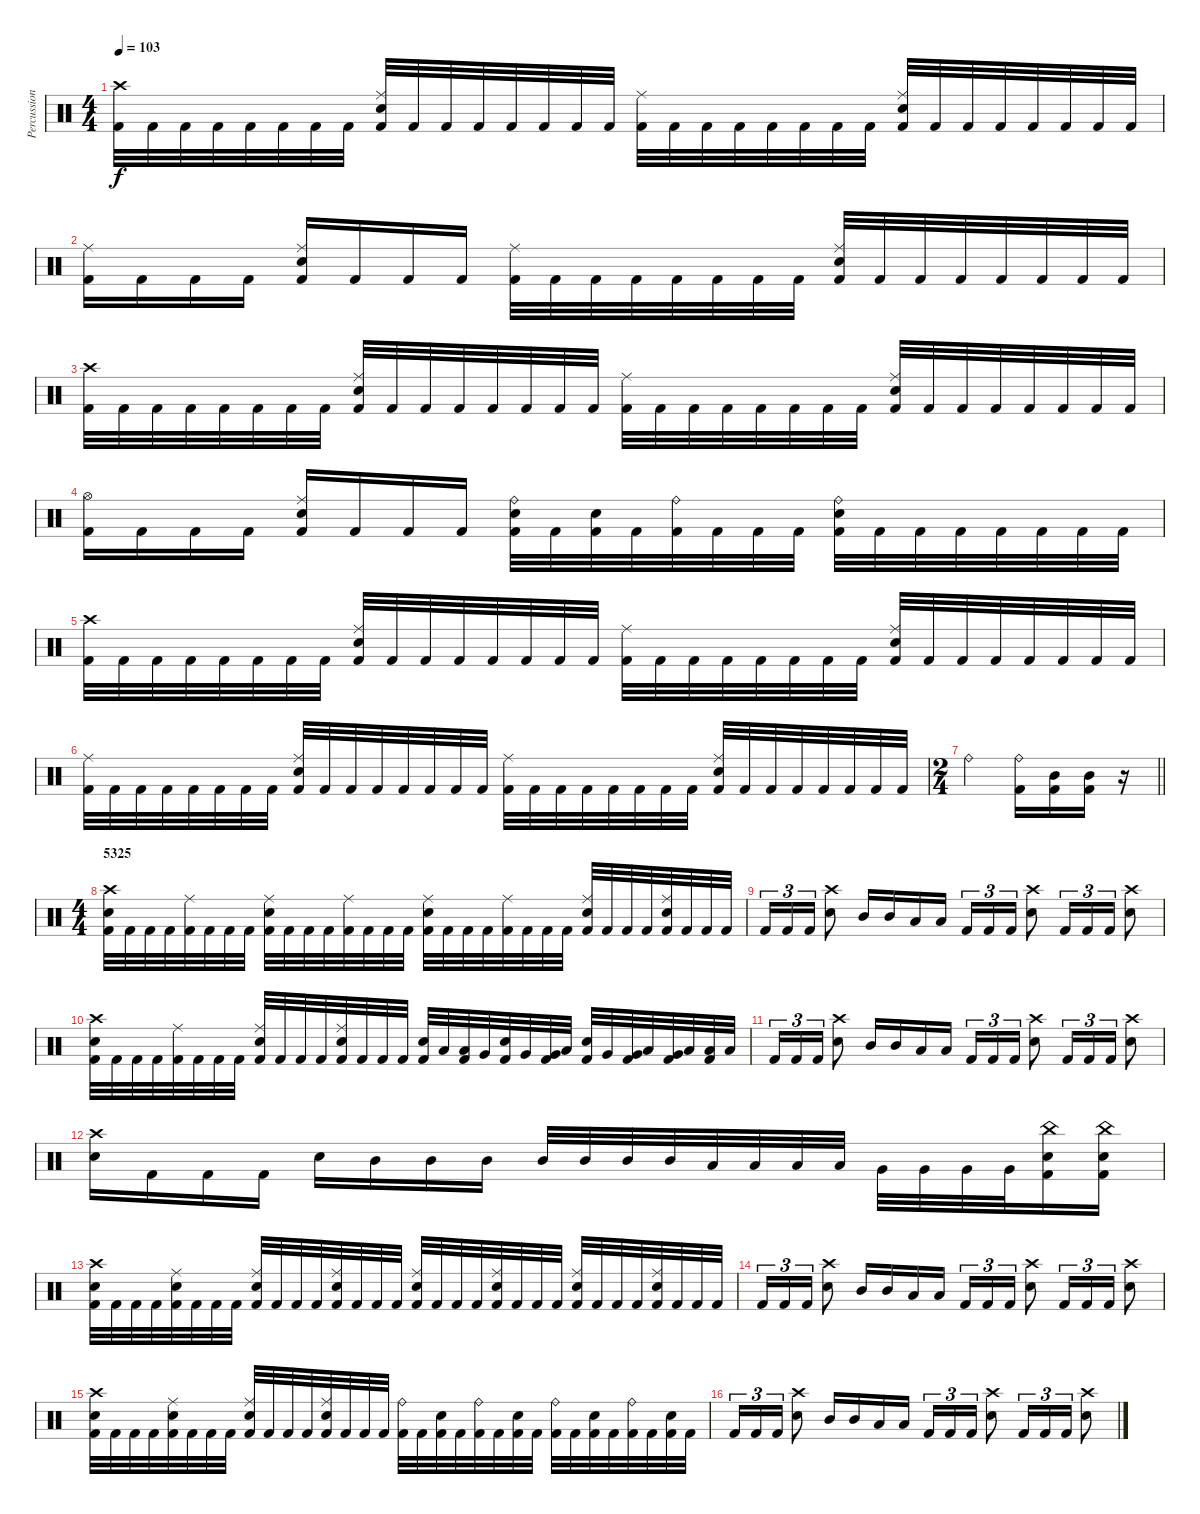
\track ("Percussion" "Percussion") {instrument percussion}
\staff {score}
\articulation defaults
\ts (4 4)
\tempo 103
\clef neutral
\ks c
("Crash high (hit)" "Kick (hit) 2").32{dy f} "Kick (hit) 2".32 "Kick (hit) 2".32 "Kick (hit) 2".32 "Kick (hit) 2".32 "Kick (hit) 2".32 "Kick (hit) 2".32 "Kick (hit) 2".32 ("Ride (middle)" "Electric Snare (hit)" "Kick (hit) 2").32 "Kick (hit) 2".32 "Kick (hit) 2".32 "Kick (hit) 2".32 "Kick (hit) 2".32 "Kick (hit) 2".32 "Kick (hit) 2".32 "Kick (hit) 2".32 ("Ride (middle)" "Kick (hit) 2").32 "Kick (hit) 2".32 "Kick (hit) 2".32 "Kick (hit) 2".32 "Kick (hit) 2".32 "Kick (hit) 2".32 "Kick (hit) 2".32 "Kick (hit) 2".32 ("Ride (middle)" "Electric Snare (hit)" "Kick (hit) 2").32 "Kick (hit) 2".32 "Kick (hit) 2".32 "Kick (hit) 2".32 "Kick (hit) 2".32 "Kick (hit) 2".32 "Kick (hit) 2".32 "Kick (hit) 2".32 |
("Ride (middle)" "Kick (hit) 2").16 "Kick (hit) 2".16 "Kick (hit) 2".16 "Kick (hit) 2".16 ("Ride (middle)" "Electric Snare (hit)" "Kick (hit) 2").16 "Kick (hit) 2".16 "Kick (hit) 2".16 "Kick (hit) 2".16 ("Ride (middle)" "Kick (hit) 2").32 "Kick (hit) 2".32 "Kick (hit) 2".32 "Kick (hit) 2".32 "Kick (hit) 2".32 "Kick (hit) 2".32 "Kick (hit) 2".32 "Kick (hit) 2".32 ("Ride (middle)" "Electric Snare (hit)" "Kick (hit) 2").32 "Kick (hit) 2".32 "Kick (hit) 2".32 "Kick (hit) 2".32 "Kick (hit) 2".32 "Kick (hit) 2".32 "Kick (hit) 2".32 "Kick (hit) 2".32 |
("Crash high (hit)" "Kick (hit) 2").32 "Kick (hit) 2".32 "Kick (hit) 2".32 "Kick (hit) 2".32 "Kick (hit) 2".32 "Kick (hit) 2".32 "Kick (hit) 2".32 "Kick (hit) 2".32 ("Ride (middle)" "Electric Snare (hit)" "Kick (hit) 2").32 "Kick (hit) 2".32 "Kick (hit) 2".32 "Kick (hit) 2".32 "Kick (hit) 2".32 "Kick (hit) 2".32 "Kick (hit) 2".32 "Kick (hit) 2".32 ("Ride (middle)" "Kick (hit) 2").32 "Kick (hit) 2".32 "Kick (hit) 2".32 "Kick (hit) 2".32 "Kick (hit) 2".32 "Kick (hit) 2".32 "Kick (hit) 2".32 "Kick (hit) 2".32 ("Ride (middle)" "Electric Snare (hit)" "Kick (hit) 2").32 "Kick (hit) 2".32 "Kick (hit) 2".32 "Kick (hit) 2".32 "Kick (hit) 2".32 "Kick (hit) 2".32 "Kick (hit) 2".32 "Kick (hit) 2".32 |
("Hi-Hat (open)" "Kick (hit) 2").16 "Kick (hit) 2".16 "Kick (hit) 2".16 "Kick (hit) 2".16 ("Ride (middle)" "Electric Snare (hit)" "Kick (hit) 2").16 "Kick (hit) 2".16 "Kick (hit) 2".16 "Kick (hit) 2".16 ("Ride (bell)" "Electric Snare (hit)" "Kick (hit) 2").32 "Kick (hit) 2".32 ("Electric Snare (hit)" "Kick (hit) 2").32 "Kick (hit) 2".32 ("Ride (bell)" "Kick (hit) 2").32 "Kick (hit) 2".32 "Kick (hit) 2".32 "Kick (hit) 2".32 ("Ride (bell)" "Electric Snare (hit)" "Kick (hit) 2").32 "Kick (hit) 2".32 "Kick (hit) 2".32 "Kick (hit) 2".32 "Kick (hit) 2".32 "Kick (hit) 2".32 "Kick (hit) 2".32 "Kick (hit) 2".32 |
("Crash high (hit)" "Kick (hit) 2").32 "Kick (hit) 2".32 "Kick (hit) 2".32 "Kick (hit) 2".32 "Kick (hit) 2".32 "Kick (hit) 2".32 "Kick (hit) 2".32 "Kick (hit) 2".32 ("Ride (middle)" "Electric Snare (hit)" "Kick (hit) 2").32 "Kick (hit) 2".32 "Kick (hit) 2".32 "Kick (hit) 2".32 "Kick (hit) 2".32 "Kick (hit) 2".32 "Kick (hit) 2".32 "Kick (hit) 2".32 ("Ride (middle)" "Kick (hit) 2").32 "Kick (hit) 2".32 "Kick (hit) 2".32 "Kick (hit) 2".32 "Kick (hit) 2".32 "Kick (hit) 2".32 "Kick (hit) 2".32 "Kick (hit) 2".32 ("Ride (middle)" "Electric Snare (hit)" "Kick (hit) 2").32 "Kick (hit) 2".32 "Kick (hit) 2".32 "Kick (hit) 2".32 "Kick (hit) 2".32 "Kick (hit) 2".32 "Kick (hit) 2".32 "Kick (hit) 2".32 |
("Ride (middle)" "Kick (hit) 2").32 "Kick (hit) 2".32 "Kick (hit) 2".32 "Kick (hit) 2".32 "Kick (hit) 2".32 "Kick (hit) 2".32 "Kick (hit) 2".32 "Kick (hit) 2".32 ("Ride (middle)" "Electric Snare (hit)" "Kick (hit) 2").32 "Kick (hit) 2".32 "Kick (hit) 2".32 "Kick (hit) 2".32 "Kick (hit) 2".32 "Kick (hit) 2".32 "Kick (hit) 2".32 "Kick (hit) 2".32 ("Ride (middle)" "Kick (hit) 2").32 "Kick (hit) 2".32 "Kick (hit) 2".32 "Kick (hit) 2".32 "Kick (hit) 2".32 "Kick (hit) 2".32 "Kick (hit) 2".32 "Kick (hit) 2".32 ("Ride (middle)" "Electric Snare (hit)" "Kick (hit) 2").32 "Kick (hit) 2".32 "Kick (hit) 2".32 "Kick (hit) 2".32 "Kick (hit) 2".32 "Kick (hit) 2".32 "Kick (hit) 2".32 "Kick (hit) 2".32 |
\ts (2 4)
\barLineRight lightlight "Ride (bell)".4
("Ride (bell)" "Kick (hit) 2").16 ("Mid Tom (hit)" "Kick (hit) 2").16 ("Mid Tom (hit)" "Kick (hit) 2").16 r.16 |
\ts (4 4)
\section ("" "5325")
("Crash high (hit)" "Electric Snare (hit)" "Kick (hit) 2").32 "Kick (hit) 2".32 "Kick (hit) 2".32 "Kick (hit) 2".32 ("Ride (middle)" "Kick (hit) 2").32 "Kick (hit) 2".32 "Kick (hit) 2".32 "Kick (hit) 2".32 ("Ride (middle)" "Electric Snare (hit)" "Kick (hit) 2").32 "Kick (hit) 2".32 "Kick (hit) 2".32 "Kick (hit) 2".32 ("Ride (middle)" "Kick (hit) 2").32 "Kick (hit) 2".32 "Kick (hit) 2".32 "Kick (hit) 2".32 ("Ride (middle)" "Electric Snare (hit)" "Kick (hit) 2").32 "Kick (hit) 2".32 "Kick (hit) 2".32 "Kick (hit) 2".32 ("Ride (middle)" "Kick (hit) 2").32 "Kick (hit) 2".32 "Kick (hit) 2".32 "Kick (hit) 2".32 ("Ride (middle)" "Electric Snare (hit)" "Kick (hit) 2").32 "Kick (hit) 2".32 "Kick (hit) 2".32 "Kick (hit) 2".32 ("Ride (middle)" "Electric Snare (hit)" "Kick (hit) 2").32 "Kick (hit) 2".32 "Kick (hit) 2".32 "Kick (hit) 2".32 |
"Kick (hit) 2".16{tu (3 2)} "Kick (hit) 2".16{tu (3 2)} "Kick (hit) 2".16{tu (3 2)} ("Crash high (hit)" "Electric Snare (hit)").8 "Mid Tom (hit)".16 "Mid Tom (hit)".16 "Low Tom (hit)".16 "Low Tom (hit)".16 "Kick (hit) 2".16{tu (3 2)} "Kick (hit) 2".16{tu (3 2)} "Kick (hit) 2".16{tu (3 2)} ("Crash high (hit)" "Electric Snare (hit)").8 "Kick (hit) 2".16{tu (3 2)} "Kick (hit) 2".16{tu (3 2)} "Kick (hit) 2".16{tu (3 2)} ("Crash high (hit)" "Electric Snare (hit)").8 |
("Crash high (hit)" "Electric Snare (hit)" "Kick (hit) 2").32 "Kick (hit) 2".32 "Kick (hit) 2".32 "Kick (hit) 2".32 ("Ride (middle)" "Kick (hit) 2").32 "Kick (hit) 2".32 "Kick (hit) 2".32 "Kick (hit) 2".32 ("Ride (middle)" "Electric Snare (hit)" "Kick (hit) 2").32 "Kick (hit) 2".32 "Kick (hit) 2".32 "Kick (hit) 2".32 ("Ride (middle)" "Electric Snare (hit)" "Kick (hit) 2").32 "Kick (hit) 2".32 "Kick (hit) 2".32 "Kick (hit) 2".32 ("Electric Snare (hit)" "Kick (hit) 2").32 "Low Tom (hit)".32 ("Low Tom (hit)" "Kick (hit) 2").32 "Very Low Tom (hit)".32 ("Electric Snare (hit)" "Kick (hit) 2").32 "Very Low Tom (hit)".32 ("Very Low Tom (hit)" "Kick (hit) 2").32 "Low Floor Tom (hit)".32 ("Electric Snare (hit)" "Kick (hit) 2").32 "Very Low Tom (hit)".32 ("Very Low Tom (hit)" "Kick (hit) 2").32 "Low Floor Tom (hit)".32 ("Very Low Tom (hit)" "Kick (hit) 2").32 "Low Floor Tom (hit)".32 ("Low Floor Tom (hit)" "Kick (hit) 2").32 "Low Floor Tom (hit)".32 |
"Kick (hit) 2".16{tu (3 2)} "Kick (hit) 2".16{tu (3 2)} "Kick (hit) 2".16{tu (3 2)} ("Crash high (hit)" "Electric Snare (hit)").8 "Mid Tom (hit)".16 "Mid Tom (hit)".16 "Low Tom (hit)".16 "Low Tom (hit)".16 "Kick (hit) 2".16{tu (3 2)} "Kick (hit) 2".16{tu (3 2)} "Kick (hit) 2".16{tu (3 2)} ("Crash high (hit)" "Electric Snare (hit)").8 "Kick (hit) 2".16{tu (3 2)} "Kick (hit) 2".16{tu (3 2)} "Kick (hit) 2".16{tu (3 2)} ("Crash high (hit)" "Electric Snare (hit)").8 |
("Crash high (hit)" "Electric Snare (hit)").16 "Kick (hit) 2".16 "Kick (hit) 2".16 "Kick (hit) 2".16 "Electric Snare (hit)".16 "Mid Tom (hit)".16 "Mid Tom (hit)".16 "Mid Tom (hit)".16 "Mid Tom (hit)".32 "Mid Tom (hit)".32 "Mid Tom (hit)".32 "Mid Tom (hit)".32 "Low Tom (hit)".32 "Low Tom (hit)".32 "Low Tom (hit)".32 "Low Tom (hit)".32 "Very Low Tom (hit)".32 "Very Low Tom (hit)".32 "Very Low Tom (hit)".32 "Very Low Tom (hit)".32 ("China (hit)" "Electric Snare (hit)" "Kick (hit) 2").16 ("China (hit)" "Electric Snare (hit)" "Kick (hit) 2").16 |
("Crash high (hit)" "Electric Snare (hit)" "Kick (hit) 2").32 "Kick (hit) 2".32 "Kick (hit) 2".32 "Kick (hit) 2".32 ("Ride (middle)" "Electric Snare (hit)" "Kick (hit) 2").32 "Kick (hit) 2".32 "Kick (hit) 2".32 "Kick (hit) 2".32 ("Ride (middle)" "Electric Snare (hit)" "Kick (hit) 2").32 "Kick (hit) 2".32 "Kick (hit) 2".32 "Kick (hit) 2".32 ("Ride (middle)" "Electric Snare (hit)" "Kick (hit) 2").32 "Kick (hit) 2".32 "Kick (hit) 2".32 "Kick (hit) 2".32 ("Ride (middle)" "Electric Snare (hit)" "Kick (hit) 2").32 "Kick (hit) 2".32 "Kick (hit) 2".32 "Kick (hit) 2".32 ("Ride (middle)" "Electric Snare (hit)" "Kick (hit) 2").32 "Kick (hit) 2".32 "Kick (hit) 2".32 "Kick (hit) 2".32 ("Ride (middle)" "Electric Snare (hit)" "Kick (hit) 2").32 "Kick (hit) 2".32 "Kick (hit) 2".32 "Kick (hit) 2".32 ("Ride (middle)" "Electric Snare (hit)" "Kick (hit) 2").32 "Kick (hit) 2".32 "Kick (hit) 2".32 "Kick (hit) 2".32 |
"Kick (hit) 2".16{tu (3 2)} "Kick (hit) 2".16{tu (3 2)} "Kick (hit) 2".16{tu (3 2)} ("Crash high (hit)" "Electric Snare (hit)").8 "Mid Tom (hit)".16 "Mid Tom (hit)".16 "Low Tom (hit)".16 "Low Tom (hit)".16 "Kick (hit) 2".16{tu (3 2)} "Kick (hit) 2".16{tu (3 2)} "Kick (hit) 2".16{tu (3 2)} ("Crash high (hit)" "Electric Snare (hit)").8 "Kick (hit) 2".16{tu (3 2)} "Kick (hit) 2".16{tu (3 2)} "Kick (hit) 2".16{tu (3 2)} ("Crash high (hit)" "Electric Snare (hit)").8 |
("Crash high (hit)" "Electric Snare (hit)" "Kick (hit) 2").32 "Kick (hit) 2".32 "Kick (hit) 2".32 "Kick (hit) 2".32 ("Ride (middle)" "Electric Snare (hit)" "Kick (hit) 2").32 "Kick (hit) 2".32 "Kick (hit) 2".32 "Kick (hit) 2".32 ("Ride (middle)" "Electric Snare (hit)" "Kick (hit) 2").32 "Kick (hit) 2".32 "Kick (hit) 2".32 "Kick (hit) 2".32 ("Ride (middle)" "Electric Snare (hit)" "Kick (hit) 2").32 "Kick (hit) 2".32 "Kick (hit) 2".32 "Kick (hit) 2".32 ("Ride (bell)" "Kick (hit) 2").32 "Kick (hit) 2".32 ("Electric Snare (hit)" "Kick (hit) 2").32 "Kick (hit) 2".32 ("Ride (bell)" "Kick (hit) 2").32 "Kick (hit) 2".32 ("Electric Snare (hit)" "Kick (hit) 2").32 "Kick (hit) 2".32 ("Ride (bell)" "Kick (hit) 2").32 "Kick (hit) 2".32 ("Electric Snare (hit)" "Kick (hit) 2").32 "Kick (hit) 2".32 ("Ride (bell)" "Kick (hit) 2").32 "Kick (hit) 2".32 ("Electric Snare (hit)" "Kick (hit) 2").32 "Kick (hit) 2".32 |
"Kick (hit) 2".16{tu (3 2)} "Kick (hit) 2".16{tu (3 2)} "Kick (hit) 2".16{tu (3 2)} ("Crash high (hit)" "Electric Snare (hit)").8 "Mid Tom (hit)".16 "Mid Tom (hit)".16 "Low Tom (hit)".16 "Low Tom (hit)".16 "Kick (hit) 2".16{tu (3 2)} "Kick (hit) 2".16{tu (3 2)} "Kick (hit) 2".16{tu (3 2)} ("Crash high (hit)" "Electric Snare (hit)").8 "Kick (hit) 2".16{tu (3 2)} "Kick (hit) 2".16{tu (3 2)} "Kick (hit) 2".16{tu (3 2)} ("Crash high (hit)" "Electric Snare (hit)").8
